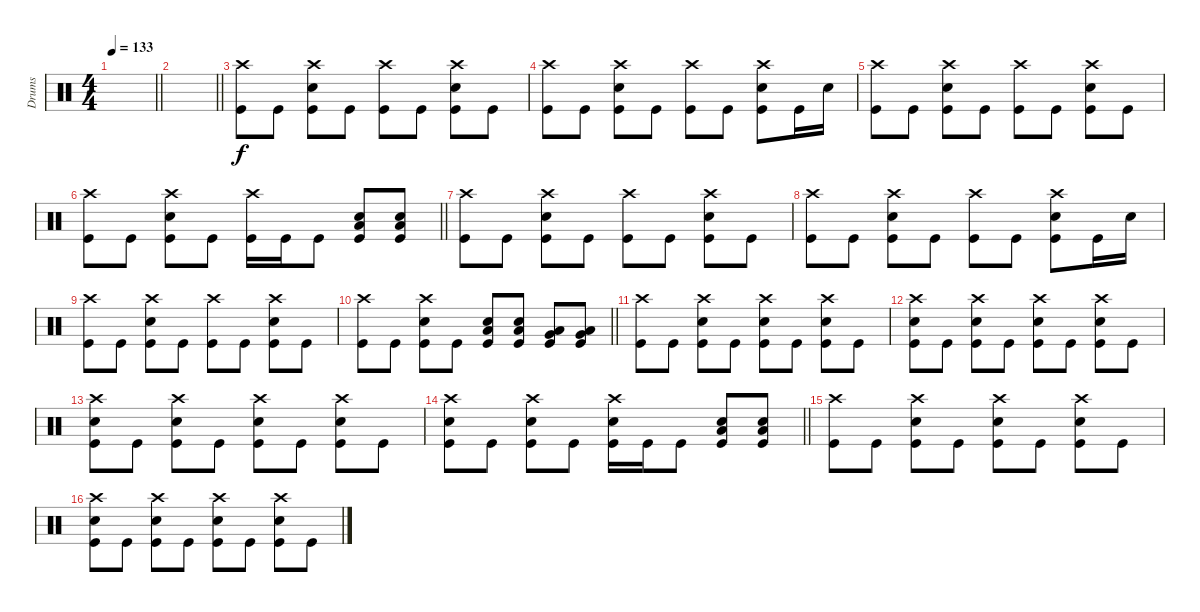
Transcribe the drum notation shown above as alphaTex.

\track ("Drums" "Drums") {instrument percussion}
\staff
\articulation defaults
\ts (4 4)
\tempo 133
\clef neutral
\barLineRight lightlight
\ks c
|
\barLineRight lightlight
|
\section ("" "")
("Crash high (hit)" "Kick (hit)").8 "Kick (hit)".8 ("Crash high (hit)" "Electric Snare (hit)" "Kick (hit)").8 "Kick (hit)".8 ("Crash high (hit)" "Kick (hit)").8 "Kick (hit)".8 ("Crash high (hit)" "Electric Snare (hit)" "Kick (hit)").8 "Kick (hit)".8 |
("Crash high (hit)" "Kick (hit)").8 "Kick (hit)".8 ("Crash high (hit)" "Electric Snare (hit)" "Kick (hit)").8 "Kick (hit)".8 ("Crash high (hit)" "Kick (hit)").8 "Kick (hit)".8 ("Crash high (hit)" "Electric Snare (hit)" "Kick (hit)").8 "Kick (hit)".16 "Electric Snare (hit)".16 |
("Crash high (hit)" "Kick (hit)").8 "Kick (hit)".8 ("Crash high (hit)" "Electric Snare (hit)" "Kick (hit)").8 "Kick (hit)".8 ("Crash high (hit)" "Kick (hit)").8 "Kick (hit)".8 ("Crash high (hit)" "Electric Snare (hit)" "Kick (hit)").8 "Kick (hit)".8 |
\barLineRight lightlight
("Crash high (hit)" "Kick (hit)").8 "Kick (hit)".8 ("Crash high (hit)" "Electric Snare (hit)" "Kick (hit)").8 "Kick (hit)".8 ("Crash high (hit)" "Kick (hit)").16 "Kick (hit)".16 "Kick (hit)".8 ("Low Floor Tom (hit)" "Electric Snare (hit)" "Kick (hit)").8 ("Low Floor Tom (hit)" "Electric Snare (hit)" "Kick (hit)").8 |
("Crash high (hit)" "Kick (hit)").8 "Kick (hit)".8 ("Crash high (hit)" "Electric Snare (hit)" "Kick (hit)").8 "Kick (hit)".8 ("Crash high (hit)" "Kick (hit)").8 "Kick (hit)".8 ("Crash high (hit)" "Electric Snare (hit)" "Kick (hit)").8 "Kick (hit)".8 |
("Crash high (hit)" "Kick (hit)").8 "Kick (hit)".8 ("Crash high (hit)" "Electric Snare (hit)" "Kick (hit)").8 "Kick (hit)".8 ("Crash high (hit)" "Kick (hit)").8 "Kick (hit)".8 ("Crash high (hit)" "Electric Snare (hit)" "Kick (hit)").8 "Kick (hit)".16 "Electric Snare (hit)".16 |
("Crash high (hit)" "Kick (hit)").8 "Kick (hit)".8 ("Crash high (hit)" "Electric Snare (hit)" "Kick (hit)").8 "Kick (hit)".8 ("Crash high (hit)" "Kick (hit)").8 "Kick (hit)".8 ("Crash high (hit)" "Electric Snare (hit)" "Kick (hit)").8 "Kick (hit)".8 |
\barLineRight lightlight
("Crash high (hit)" "Kick (hit)").8 "Kick (hit)".8 ("Crash high (hit)" "Electric Snare (hit)" "Kick (hit)").8 "Kick (hit)".8 ("Low Floor Tom (hit)" "Electric Snare (hit)" "Kick (hit)").8 ("Low Floor Tom (hit)" "Electric Snare (hit)" "Kick (hit)").8 ("Very Low Tom (hit)" "Low Floor Tom (hit)" "Kick (hit)").8 ("Very Low Tom (hit)" "Low Floor Tom (hit)" "Kick (hit)").8 |
("Crash high (hit)" "Kick (hit)").8 "Kick (hit)".8 ("Crash high (hit)" "Electric Snare (hit)" "Kick (hit)").8 "Kick (hit)".8 ("Crash high (hit)" "Electric Snare (hit)" "Kick (hit)").8 "Kick (hit)".8 ("Crash high (hit)" "Electric Snare (hit)" "Kick (hit)").8 "Kick (hit)".8 |
("Crash high (hit)" "Electric Snare (hit)" "Kick (hit)").8 "Kick (hit)".8 ("Crash high (hit)" "Electric Snare (hit)" "Kick (hit)").8 "Kick (hit)".8 ("Crash high (hit)" "Electric Snare (hit)" "Kick (hit)").8 "Kick (hit)".8 ("Crash high (hit)" "Electric Snare (hit)" "Kick (hit)").8 "Kick (hit)".8 |
("Crash high (hit)" "Electric Snare (hit)" "Kick (hit)").8 "Kick (hit)".8 ("Crash high (hit)" "Electric Snare (hit)" "Kick (hit)").8 "Kick (hit)".8 ("Crash high (hit)" "Electric Snare (hit)" "Kick (hit)").8 "Kick (hit)".8 ("Crash high (hit)" "Electric Snare (hit)" "Kick (hit)").8 "Kick (hit)".8 |
\barLineRight lightlight
("Crash high (hit)" "Electric Snare (hit)" "Kick (hit)").8 "Kick (hit)".8 ("Crash high (hit)" "Electric Snare (hit)" "Kick (hit)").8 "Kick (hit)".8 ("Crash high (hit)" "Electric Snare (hit)" "Kick (hit)").16 "Kick (hit)".16 "Kick (hit)".8 ("Low Floor Tom (hit)" "Electric Snare (hit)" "Kick (hit)").8 ("Low Floor Tom (hit)" "Electric Snare (hit)" "Kick (hit)").8 |
("Crash high (hit)" "Kick (hit)").8 "Kick (hit)".8 ("Crash high (hit)" "Electric Snare (hit)" "Kick (hit)").8 "Kick (hit)".8 ("Crash high (hit)" "Electric Snare (hit)" "Kick (hit)").8 "Kick (hit)".8 ("Crash high (hit)" "Electric Snare (hit)" "Kick (hit)").8 "Kick (hit)".8 |
("Crash high (hit)" "Electric Snare (hit)" "Kick (hit)").8 "Kick (hit)".8 ("Crash high (hit)" "Electric Snare (hit)" "Kick (hit)").8 "Kick (hit)".8 ("Crash high (hit)" "Electric Snare (hit)" "Kick (hit)").8 "Kick (hit)".8 ("Crash high (hit)" "Electric Snare (hit)" "Kick (hit)").8 "Kick (hit)".8
